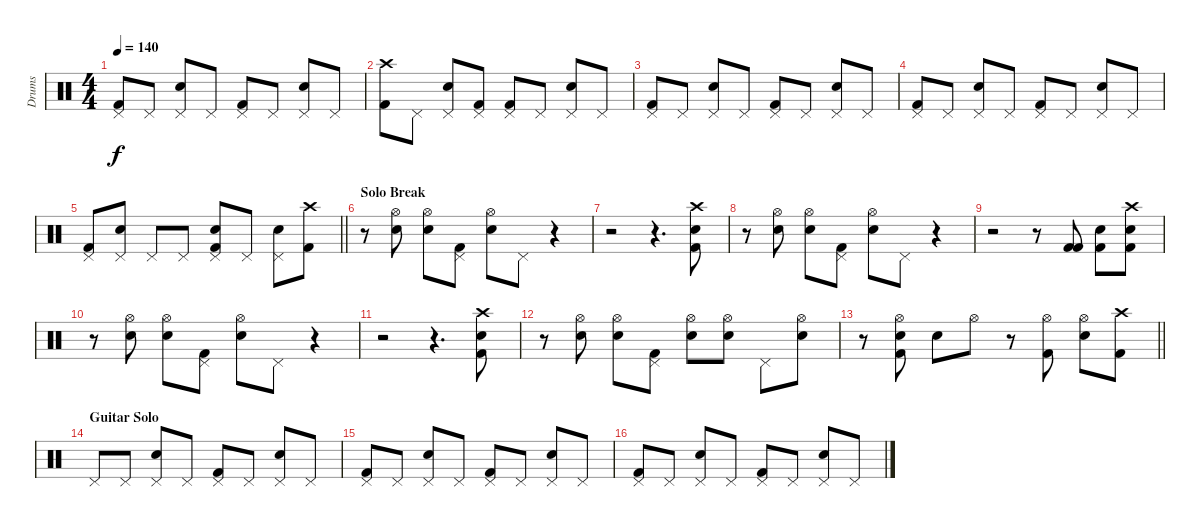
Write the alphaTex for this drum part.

\track ("Drums" "Drums") {instrument percussion}
\staff {score}
\articulation defaults
\ts (4 4)
\tempo 140
\clef neutral
\ks c
("Pedal Hi-Hat (hit)" "Kick (hit) 2").8{dy f} "Pedal Hi-Hat (hit)".8 ("Pedal Hi-Hat (hit)" "Electric Snare (hit)").8 "Pedal Hi-Hat (hit)".8 ("Pedal Hi-Hat (hit)" "Kick (hit) 2").8 "Pedal Hi-Hat (hit)".8 ("Pedal Hi-Hat (hit)" "Electric Snare (hit)").8 "Pedal Hi-Hat (hit)".8 |
("Crash high (hit)" "Kick (hit) 2").8 "Pedal Hi-Hat (hit)".8 ("Pedal Hi-Hat (hit)" "Electric Snare (hit)").8 ("Pedal Hi-Hat (hit)" "Kick (hit) 2").8 ("Pedal Hi-Hat (hit)" "Kick (hit) 2").8 "Pedal Hi-Hat (hit)".8 ("Pedal Hi-Hat (hit)" "Electric Snare (hit)").8 "Pedal Hi-Hat (hit)".8 |
("Pedal Hi-Hat (hit)" "Kick (hit) 2").8 "Pedal Hi-Hat (hit)".8 ("Pedal Hi-Hat (hit)" "Electric Snare (hit)").8 "Pedal Hi-Hat (hit)".8 ("Pedal Hi-Hat (hit)" "Kick (hit) 2").8 "Pedal Hi-Hat (hit)".8 ("Pedal Hi-Hat (hit)" "Electric Snare (hit)").8 "Pedal Hi-Hat (hit)".8 |
("Pedal Hi-Hat (hit)" "Kick (hit) 2").8 "Pedal Hi-Hat (hit)".8 ("Pedal Hi-Hat (hit)" "Electric Snare (hit)").8 "Pedal Hi-Hat (hit)".8 ("Pedal Hi-Hat (hit)" "Kick (hit) 2").8 "Pedal Hi-Hat (hit)".8 ("Pedal Hi-Hat (hit)" "Electric Snare (hit)").8 "Pedal Hi-Hat (hit)".8 |
\barLineRight lightlight
("Pedal Hi-Hat (hit)" "Kick (hit) 2").8 ("Pedal Hi-Hat (hit)" "Electric Snare (hit)").8 "Pedal Hi-Hat (hit)".8 "Pedal Hi-Hat (hit)".8 ("Pedal Hi-Hat (hit)" "Electric Snare (hit)" "Kick (hit) 2").8 "Pedal Hi-Hat (hit)".8 ("Pedal Hi-Hat (hit)" "Electric Snare (hit)").8 ("Crash high (hit)" "Kick (hit) 2").8 |
\section ("" "Solo Break")
r.8 ("Hi-Hat (open)" "Electric Snare (hit)").8 ("Hi-Hat (open)" "Electric Snare (hit)").8 ("Pedal Hi-Hat (hit)" "Kick (hit) 2").8 ("Hi-Hat (open)" "Electric Snare (hit)").8 "Pedal Hi-Hat (hit)".8 r.4 |
r.2 r.4{d} ("Crash high (hit)" "Electric Snare (hit)" "Kick (hit) 2").8 |
r.8 ("Hi-Hat (open)" "Electric Snare (hit)").8 ("Hi-Hat (open)" "Electric Snare (hit)").8 ("Pedal Hi-Hat (hit)" "Kick (hit) 2").8 ("Hi-Hat (open)" "Electric Snare (hit)").8 "Pedal Hi-Hat (hit)".8 r.4 |
r.2 r.8 ("Kick (hit) 2" "Kick (hit) 2").8 ("Electric Snare (hit)" "Kick (hit) 2").8 ("Crash high (hit)" "Electric Snare (hit)" "Kick (hit) 2").8 |
r.8 ("Hi-Hat (open)" "Electric Snare (hit)").8 ("Hi-Hat (open)" "Electric Snare (hit)").8 ("Pedal Hi-Hat (hit)" "Kick (hit) 2").8 ("Hi-Hat (open)" "Electric Snare (hit)").8 "Pedal Hi-Hat (hit)".8 r.4 |
r.2 r.4{d} ("Crash high (hit)" "Electric Snare (hit)" "Kick (hit) 2").8 |
r.8 ("Hi-Hat (open)" "Electric Snare (hit)").8 ("Hi-Hat (open)" "Electric Snare (hit)").8 ("Pedal Hi-Hat (hit)" "Kick (hit) 2").8 ("Hi-Hat (open)" "Electric Snare (hit)").8 ("Hi-Hat (open)" "Electric Snare (hit)").8 "Pedal Hi-Hat (hit)".8 ("Hi-Hat (open)" "Electric Snare (hit)").8 |
\barLineRight lightlight
r.8 ("Hi-Hat (open)" "Electric Snare (hit)" "Kick (hit) 2").8 "Electric Snare (hit)".8 "Hi-Hat (open)".8 r.8 ("Hi-Hat (open)" "Kick (hit) 2").8 ("Hi-Hat (open)" "Electric Snare (hit)").8 ("Crash high (hit)" "Kick (hit) 2").8 |
\section ("" "Guitar Solo")
"Pedal Hi-Hat (hit)".8 "Pedal Hi-Hat (hit)".8 ("Pedal Hi-Hat (hit)" "Electric Snare (hit)").8 "Pedal Hi-Hat (hit)".8 ("Pedal Hi-Hat (hit)" "Kick (hit) 2").8 "Pedal Hi-Hat (hit)".8 ("Pedal Hi-Hat (hit)" "Electric Snare (hit)").8 "Pedal Hi-Hat (hit)".8 |
("Pedal Hi-Hat (hit)" "Kick (hit) 2").8 "Pedal Hi-Hat (hit)".8 ("Pedal Hi-Hat (hit)" "Electric Snare (hit)").8 "Pedal Hi-Hat (hit)".8 ("Pedal Hi-Hat (hit)" "Kick (hit) 2").8 "Pedal Hi-Hat (hit)".8 ("Pedal Hi-Hat (hit)" "Electric Snare (hit)").8 "Pedal Hi-Hat (hit)".8 |
("Pedal Hi-Hat (hit)" "Kick (hit) 2").8 "Pedal Hi-Hat (hit)".8 ("Pedal Hi-Hat (hit)" "Electric Snare (hit)").8 "Pedal Hi-Hat (hit)".8 ("Pedal Hi-Hat (hit)" "Kick (hit) 2").8 "Pedal Hi-Hat (hit)".8 ("Pedal Hi-Hat (hit)" "Electric Snare (hit)").8 "Pedal Hi-Hat (hit)".8
